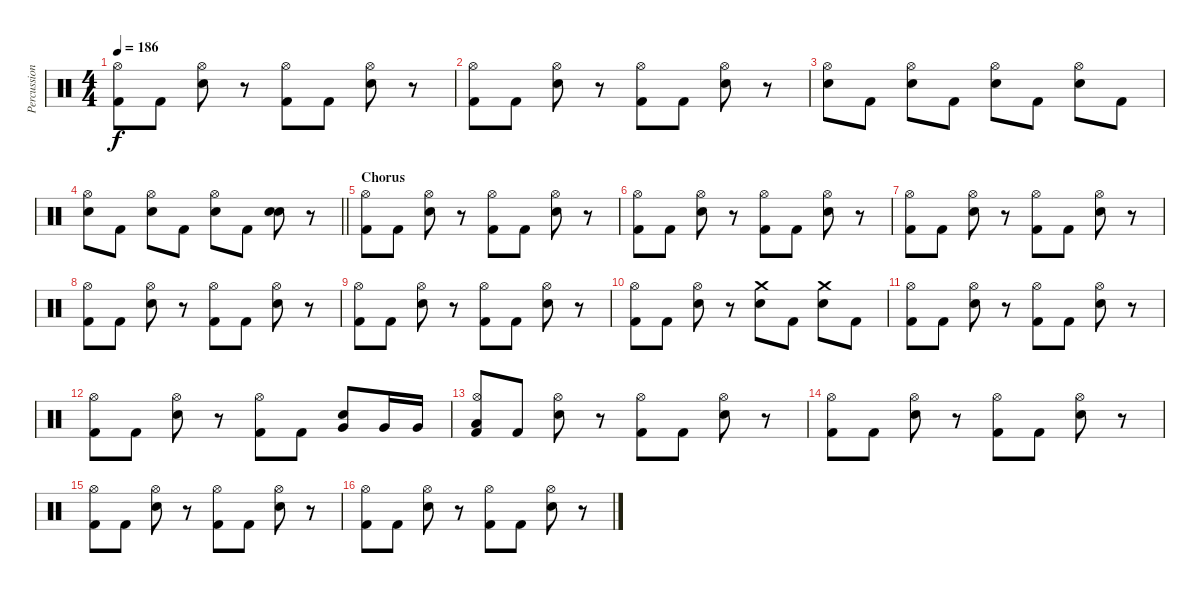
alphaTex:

\track ("Percussion" "Percussion") {instrument percussion}
\staff {score}
\articulation defaults
\ts (4 4)
\tempo 186
\clef neutral
\ks c
("Kick (hit) 2" "Hi-Hat (open)").8{dy f} "Kick (hit) 2".8 ("Electric Snare (hit)" "Hi-Hat (open)").8 r.8 ("Kick (hit) 2" "Hi-Hat (open)").8 "Kick (hit) 2".8 ("Electric Snare (hit)" "Hi-Hat (open)").8 r.8 |
("Kick (hit) 2" "Hi-Hat (open)").8 "Kick (hit) 2".8 ("Electric Snare (hit)" "Hi-Hat (open)").8 r.8 ("Kick (hit) 2" "Hi-Hat (open)").8 "Kick (hit) 2".8 ("Electric Snare (hit)" "Hi-Hat (open)").8 r.8 |
("Electric Snare (hit)" "Hi-Hat (open)").8 "Kick (hit) 2".8 ("Electric Snare (hit)" "Hi-Hat (open)").8 "Kick (hit) 2".8 ("Electric Snare (hit)" "Hi-Hat (open)").8 "Kick (hit) 2".8 ("Electric Snare (hit)" "Hi-Hat (open)").8 "Kick (hit) 2".8 |
\barLineRight lightlight
("Electric Snare (hit)" "Hi-Hat (open)").8 "Kick (hit) 2".8 ("Electric Snare (hit)" "Hi-Hat (open)").8 "Kick (hit) 2".8 ("Electric Snare (hit)" "Hi-Hat (open)").8 "Kick (hit) 2".8 ("Electric Snare (hit)" "Electric Snare (hit)").8 r.8 |
\section ("" "Chorus")
("Kick (hit) 2" "Hi-Hat (open)").8 "Kick (hit) 2".8 ("Electric Snare (hit)" "Hi-Hat (open)").8 r.8 ("Kick (hit) 2" "Hi-Hat (open)").8 "Kick (hit) 2".8 ("Electric Snare (hit)" "Hi-Hat (open)").8 r.8 |
("Kick (hit) 2" "Hi-Hat (open)").8 "Kick (hit) 2".8 ("Electric Snare (hit)" "Hi-Hat (open)").8 r.8 ("Kick (hit) 2" "Hi-Hat (open)").8 "Kick (hit) 2".8 ("Electric Snare (hit)" "Hi-Hat (open)").8 r.8 |
("Kick (hit) 2" "Hi-Hat (open)").8 "Kick (hit) 2".8 ("Electric Snare (hit)" "Hi-Hat (open)").8 r.8 ("Kick (hit) 2" "Hi-Hat (open)").8 "Kick (hit) 2".8 ("Electric Snare (hit)" "Hi-Hat (open)").8 r.8 |
("Kick (hit) 2" "Hi-Hat (open)").8 "Kick (hit) 2".8 ("Electric Snare (hit)" "Hi-Hat (open)").8 r.8 ("Kick (hit) 2" "Hi-Hat (open)").8 "Kick (hit) 2".8 ("Electric Snare (hit)" "Hi-Hat (open)").8 r.8 |
("Kick (hit) 2" "Hi-Hat (open)").8 "Kick (hit) 2".8 ("Electric Snare (hit)" "Hi-Hat (open)").8 r.8 ("Kick (hit) 2" "Hi-Hat (open)").8 "Kick (hit) 2".8 ("Electric Snare (hit)" "Hi-Hat (open)").8 r.8 |
("Kick (hit) 2" "Hi-Hat (open)").8 "Kick (hit) 2".8 ("Electric Snare (hit)" "Hi-Hat (open)").8 r.8 ("Electric Snare (hit)" "Crash medium (hit)").8 "Kick (hit) 2".8 ("Electric Snare (hit)" "Crash medium (hit)").8 "Kick (hit) 2".8 |
("Kick (hit) 2" "Hi-Hat (open)").8 "Kick (hit) 2".8 ("Electric Snare (hit)" "Hi-Hat (open)").8 r.8 ("Kick (hit) 2" "Hi-Hat (open)").8 "Kick (hit) 2".8 ("Electric Snare (hit)" "Hi-Hat (open)").8 r.8 |
("Kick (hit) 2" "Hi-Hat (open)").8 "Kick (hit) 2".8 ("Electric Snare (hit)" "Hi-Hat (open)").8 r.8 ("Kick (hit) 2" "Hi-Hat (open)").8 "Kick (hit) 2".8 ("Electric Snare (hit)" "Very Low Tom (hit)").8 "Very Low Tom (hit)".16 "Very Low Tom (hit)".16 |
("Kick (hit) 2" "Low Floor Tom (hit)" "Hi-Hat (open)").8 "Kick (hit) 2".8 ("Electric Snare (hit)" "Hi-Hat (open)").8 r.8 ("Kick (hit) 2" "Hi-Hat (open)").8 "Kick (hit) 2".8 ("Electric Snare (hit)" "Hi-Hat (open)").8 r.8 |
("Kick (hit) 2" "Hi-Hat (open)").8 "Kick (hit) 2".8 ("Electric Snare (hit)" "Hi-Hat (open)").8 r.8 ("Kick (hit) 2" "Hi-Hat (open)").8 "Kick (hit) 2".8 ("Electric Snare (hit)" "Hi-Hat (open)").8 r.8 |
("Kick (hit) 2" "Hi-Hat (open)").8 "Kick (hit) 2".8 ("Electric Snare (hit)" "Hi-Hat (open)").8 r.8 ("Kick (hit) 2" "Hi-Hat (open)").8 "Kick (hit) 2".8 ("Electric Snare (hit)" "Hi-Hat (open)").8 r.8 |
("Kick (hit) 2" "Hi-Hat (open)").8 "Kick (hit) 2".8 ("Electric Snare (hit)" "Hi-Hat (open)").8 r.8 ("Kick (hit) 2" "Hi-Hat (open)").8 "Kick (hit) 2".8 ("Electric Snare (hit)" "Hi-Hat (open)").8 r.8
